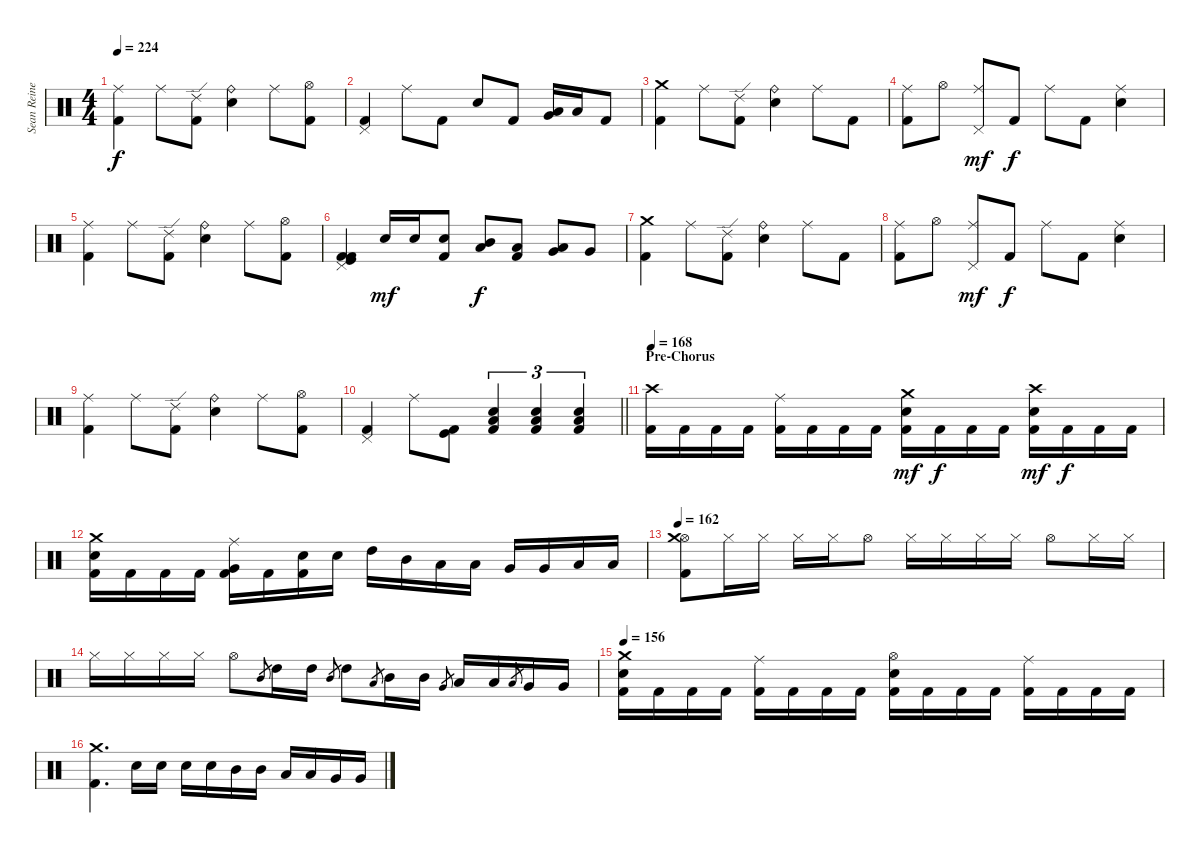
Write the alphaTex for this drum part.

\track ("Sean Reinert" "Sean Reine") {instrument percussion}
\staff {score}
\articulation defaults
\ts (4 4)
\tempo 224
\clef neutral
\ks c
("Ride (middle)" "Kick (hit) 2").4{dy f} "Ride (middle)".8 ("Ride (edge) 2" "Kick (hit) 2").8 ("Ride (bell)" "Snare (hit) 2").4 "Ride (middle)".8 ("Hi-Hat (open)" "Kick (hit) 2").8 |
("Pedal Hi-Hat (hit)" "Kick (hit) 2").4 "Ride (middle)".8 "Kick (hit) 2".8 "Snare (hit) 2".8 "Kick (hit) 2".8 ("Very Low Tom (hit)" "Low Floor Tom (hit)").16 "Low Floor Tom (hit)".16 "Kick (hit) 2".8 |
("Crash medium (hit)" "Kick (hit) 2").4 "Ride (middle)".8 ("Ride (edge) 2" "Kick (hit) 2").8 ("Ride (bell)" "Snare (hit) 2").4 "Ride (middle)".8 "Kick (hit) 2".8 |
("Ride (middle)" "Kick (hit) 2").8 "Hi-Hat (open)".8 ("Pedal Hi-Hat (hit)" "Ride (middle)").8{dy mf} "Kick (hit) 2".8{dy f} "Ride (middle)".8 "Kick (hit) 2".8 ("Ride (middle)" "Snare (hit) 2").4 |
("Ride (middle)" "Kick (hit) 2").4 "Ride (middle)".8 ("Ride (edge) 2" "Kick (hit) 2").8 ("Ride (bell)" "Snare (hit) 2").4 "Ride (middle)".8 ("Hi-Hat (open)" "Kick (hit) 2").8 |
("Kick (hit) 2" "Kick (hit)" "Pedal Hi-Hat (hit)" "Kick (hit) 2").4 "Snare (hit) 2".16{dy mf} "Snare (hit) 2".16 ("Snare (hit) 2" "Kick (hit) 2").8 ("Mid Tom (hit)" "Low Tom (hit)").8{dy f} ("Low Tom (hit)" "Kick (hit) 2").8 ("Low Tom (hit)" "Very Low Tom (hit)").8 "Very Low Tom (hit)".8 |
("Crash medium (hit)" "Kick (hit) 2").4 "Ride (middle)".8 ("Ride (edge) 2" "Kick (hit) 2").8 ("Ride (bell)" "Snare (hit) 2").4 "Ride (middle)".8 "Kick (hit) 2".8 |
("Ride (middle)" "Kick (hit) 2").8 "Hi-Hat (open)".8 ("Pedal Hi-Hat (hit)" "Ride (middle)").8{dy mf} "Kick (hit) 2".8{dy f} "Ride (middle)".8 "Kick (hit) 2".8 ("Ride (middle)" "Snare (hit) 2").4 |
("Ride (middle)" "Kick (hit) 2").4 "Ride (middle)".8 ("Ride (edge) 2" "Kick (hit) 2").8 ("Ride (bell)" "Snare (hit) 2").4 "Ride (middle)".8 ("Hi-Hat (open)" "Kick (hit) 2").8 |
\barLineRight lightlight
("Pedal Hi-Hat (hit)" "Kick (hit) 2").4 "Ride (middle)".8 ("Kick (hit)" "Kick (hit) 2").8 ("Low Floor Tom (hit)" "Snare (hit) 2" "Kick (hit) 2").4{tu (3 2)} ("Low Floor Tom (hit)" "Snare (hit) 2" "Kick (hit) 2").4{tu (3 2)} ("Low Floor Tom (hit)" "Snare (hit) 2" "Kick (hit) 2").4{tu (3 2)} |
\section ("" "Pre-Chorus")
\tempo 168
("Crash high (hit)" "Kick (hit) 2").16 "Kick (hit) 2".16 "Kick (hit) 2".16 "Kick (hit) 2".16 ("Ride (middle)" "Kick (hit) 2").16 "Kick (hit) 2".16 "Kick (hit) 2".16 "Kick (hit) 2".16 ("Crash medium (hit)" "Snare (hit) 2" "Kick (hit) 2").16{dy mf} "Kick (hit) 2".16{dy f} "Kick (hit) 2".16 "Kick (hit) 2".16 ("Crash high (hit)" "Snare (hit) 2" "Kick (hit) 2").16{dy mf} "Kick (hit) 2".16{dy f} "Kick (hit) 2".16 "Kick (hit) 2".16 |
("Crash medium (hit)" "Snare (hit) 2" "Kick (hit) 2").16 "Kick (hit) 2".16 "Kick (hit) 2".16 "Kick (hit) 2".16 ("Ride (middle)" "Very Low Tom (hit)" "Kick (hit) 2").16 "Kick (hit) 2".16 ("Snare (hit) 2" "Kick (hit) 2").16 "Snare (hit) 2".16 "High Tom (hit)".16 "Mid Tom (hit)".16 "Low Tom (hit)".16 "Low Tom (hit)".16 "Very Low Tom (hit)".16 "Very Low Tom (hit)".16 "Low Floor Tom (hit)".16 "Low Floor Tom (hit)".16 |
\tempo 162
("Hi-Hat (open)" "Crash medium (hit)" "Kick (hit) 2").8 "Hi-Hat (closed)".16 "Hi-Hat (closed)".16 "Hi-Hat (closed)".16 "Hi-Hat (closed)".16 "Hi-Hat (open)".8 "Hi-Hat (closed)".16 "Hi-Hat (closed)".16 "Hi-Hat (closed)".16 "Hi-Hat (closed)".16 "Hi-Hat (open)".8 "Hi-Hat (closed)".16 "Hi-Hat (closed)".16 |
"Hi-Hat (closed)".16 "Hi-Hat (closed)".16 "Hi-Hat (closed)".16 "Hi-Hat (closed)".16 "Hi-Hat (open)".8 "Mid Tom (hit)".8{gr} "High Tom (hit)".16 "High Tom (hit)".16 "Mid Tom (hit)".8{gr} "High Tom (hit)".8 "Low Tom (hit)".8{gr} "Mid Tom (hit)".16 "Mid Tom (hit)".16 "Very Low Tom (hit)".8{gr} "Low Tom (hit)".16 "Low Tom (hit)".16 "Low Floor Tom (hit)".8{gr} "Very Low Tom (hit)".16 "Very Low Tom (hit)".16 |
\tempo 156
("Crash medium (hit)" "Snare (hit) 2" "Kick (hit) 2").16 "Kick (hit) 2".16 "Kick (hit) 2".16 "Kick (hit) 2".16 ("Ride (middle)" "Kick (hit) 2").16 "Kick (hit) 2".16 "Kick (hit) 2".16 "Kick (hit) 2".16 ("Hi-Hat (open)" "Snare (hit) 2" "Kick (hit) 2").16 "Kick (hit) 2".16 "Kick (hit) 2".16 "Kick (hit) 2".16 ("Ride (middle)" "Kick (hit) 2").16 "Kick (hit) 2".16 "Kick (hit) 2".16 "Kick (hit) 2".16 |
("Crash medium (hit)" "Kick (hit) 2").4{d} "Snare (hit) 2".16 "Snare (hit) 2".16 "Snare (hit) 2".16 "Snare (hit) 2".16 "Mid Tom (hit)".16 "Mid Tom (hit)".16 "Low Tom (hit)".16 "Low Tom (hit)".16 "Very Low Tom (hit)".16 "Very Low Tom (hit)".16
